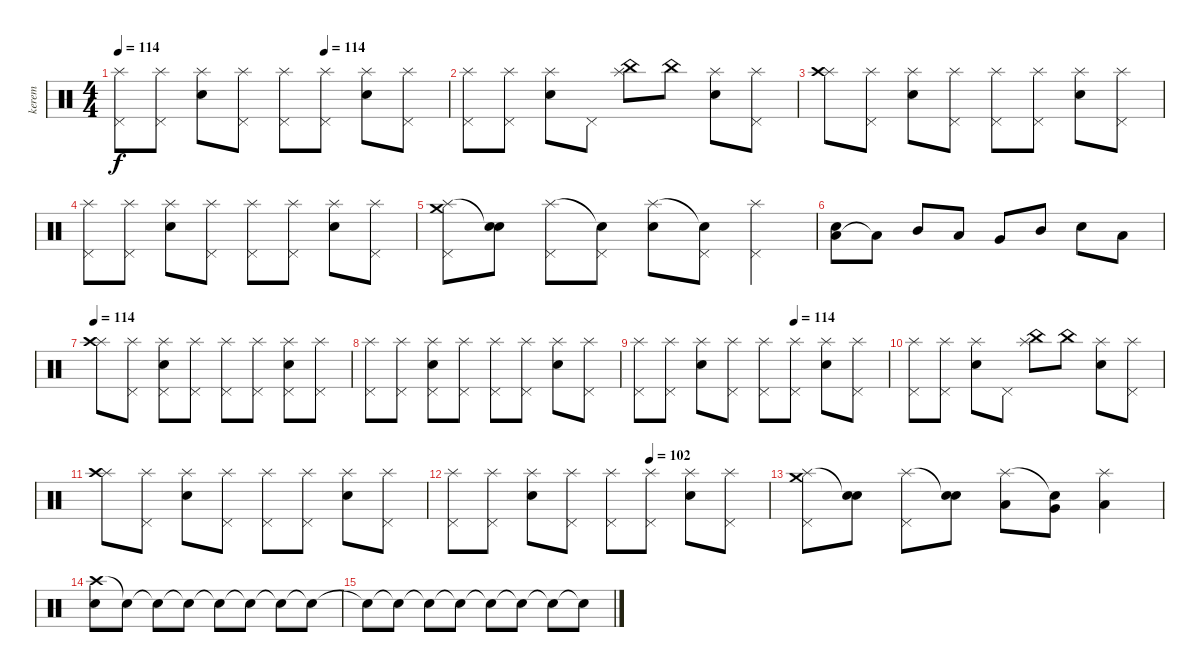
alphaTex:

\track ("kerem" "kerem") {instrument percussion}
\staff {score}
\articulation defaults
\ts (4 4)
\tempo 114
\tempo (114 0.625)
\clef neutral
\ks c
("Splash (hit)" "Pedal Hi-Hat (hit)").8{dy f} ("Splash (hit)" "Pedal Hi-Hat (hit)").8 ("Splash (hit)" "Snare (hit) 2").8 ("Splash (hit)" "Pedal Hi-Hat (hit)").8 ("Splash (hit)" "Pedal Hi-Hat (hit)").8 ("Splash (hit)" "Pedal Hi-Hat (hit)").8 ("Splash (hit)" "Snare (hit) 2").8 ("Splash (hit)" "Pedal Hi-Hat (hit)").8 |
("Splash (hit)" "Pedal Hi-Hat (hit)").8 ("Splash (hit)" "Pedal Hi-Hat (hit)").8 ("Splash (hit)" "Snare (hit) 2").8 "Pedal Hi-Hat (hit)".8 ("Splash (hit)" "China (hit)").8 "China (hit)".8 ("Splash (hit)" "Snare (hit) 2").8 ("Splash (hit)" "Pedal Hi-Hat (hit)").8 |
("Splash (hit)" "Crash high (hit)").8 ("Splash (hit)" "Pedal Hi-Hat (hit)").8 ("Splash (hit)" "Snare (hit) 2").8 ("Splash (hit)" "Pedal Hi-Hat (hit)").8 ("Splash (hit)" "Pedal Hi-Hat (hit)").8 ("Splash (hit)" "Pedal Hi-Hat (hit)").8 ("Splash (hit)" "Snare (hit) 2").8 ("Splash (hit)" "Pedal Hi-Hat (hit)").8 |
("Splash (hit)" "Pedal Hi-Hat (hit)").8 ("Splash (hit)" "Pedal Hi-Hat (hit)").8 ("Splash (hit)" "Snare (hit) 2").8 ("Splash (hit)" "Pedal Hi-Hat (hit)").8 ("Splash (hit)" "Pedal Hi-Hat (hit)").8 ("Splash (hit)" "Pedal Hi-Hat (hit)").8 ("Splash (hit)" "Snare (hit) 2").8 ("Splash (hit)" "Pedal Hi-Hat (hit)").8 |
("Splash (hit)" "Crash medium (hit)" "Pedal Hi-Hat (hit)").8 ("Snare (hit)"{t} "Snare (hit) 2").8 ("Splash (hit)" "Pedal Hi-Hat (hit)").8 ("Snare (hit)"{t} "Pedal Hi-Hat (hit)").8 ("Splash (hit)" "Snare (hit) 2").8 ("Snare (hit)"{t} "Pedal Hi-Hat (hit)").8 ("Splash (hit)" "Pedal Hi-Hat (hit)").4 |
("Low Tom (hit)" "Electric Snare (hit)").8 "Low Floor Tom (hit)"{t}.8 "Mid Tom (hit)".8 "Low Tom (hit)".8 "Very Low Tom (hit)".8 "Mid Tom (hit)".8 "Snare (hit) 2".8 "Low Floor Tom (hit)".8 |
\tempo 114
("Splash (hit)" "Crash high (hit)").8 ("Splash (hit)" "Pedal Hi-Hat (hit)").8 ("Splash (hit)" "Snare (hit) 2" "Pedal Hi-Hat (hit)").8 ("Splash (hit)" "Pedal Hi-Hat (hit)").8 ("Splash (hit)" "Pedal Hi-Hat (hit)").8 ("Splash (hit)" "Pedal Hi-Hat (hit)").8 ("Splash (hit)" "Snare (hit) 2" "Pedal Hi-Hat (hit)").8 ("Splash (hit)" "Pedal Hi-Hat (hit)").8 |
("Splash (hit)" "Pedal Hi-Hat (hit)").8 ("Splash (hit)" "Pedal Hi-Hat (hit)").8 ("Splash (hit)" "Snare (hit) 2" "Pedal Hi-Hat (hit)").8 ("Splash (hit)" "Pedal Hi-Hat (hit)").8 ("Splash (hit)" "Pedal Hi-Hat (hit)").8 ("Splash (hit)" "Pedal Hi-Hat (hit)").8 ("Splash (hit)" "Snare (hit) 2").8 ("Splash (hit)" "Pedal Hi-Hat (hit)").8 |
\tempo (114 0.625)
("Splash (hit)" "Pedal Hi-Hat (hit)").8 ("Splash (hit)" "Pedal Hi-Hat (hit)").8 ("Splash (hit)" "Snare (hit) 2").8 ("Splash (hit)" "Pedal Hi-Hat (hit)").8 ("Splash (hit)" "Pedal Hi-Hat (hit)").8 ("Splash (hit)" "Pedal Hi-Hat (hit)").8 ("Splash (hit)" "Snare (hit) 2").8 ("Splash (hit)" "Pedal Hi-Hat (hit)").8 |
("Splash (hit)" "Pedal Hi-Hat (hit)").8 ("Splash (hit)" "Pedal Hi-Hat (hit)").8 ("Splash (hit)" "Snare (hit) 2").8 "Pedal Hi-Hat (hit)".8 ("Splash (hit)" "China (hit)").8 "China (hit)".8 ("Splash (hit)" "Snare (hit) 2").8 ("Splash (hit)" "Pedal Hi-Hat (hit)").8 |
("Splash (hit)" "Crash high (hit)").8 ("Splash (hit)" "Pedal Hi-Hat (hit)").8 ("Splash (hit)" "Snare (hit) 2").8 ("Splash (hit)" "Pedal Hi-Hat (hit)").8 ("Splash (hit)" "Pedal Hi-Hat (hit)").8 ("Splash (hit)" "Pedal Hi-Hat (hit)").8 ("Splash (hit)" "Snare (hit) 2").8 ("Splash (hit)" "Pedal Hi-Hat (hit)").8 |
\tempo (102 0.625)
("Splash (hit)" "Pedal Hi-Hat (hit)").8 ("Splash (hit)" "Pedal Hi-Hat (hit)").8 ("Splash (hit)" "Snare (hit) 2").8 ("Splash (hit)" "Pedal Hi-Hat (hit)").8 ("Splash (hit)" "Pedal Hi-Hat (hit)").8 ("Splash (hit)" "Pedal Hi-Hat (hit)").8 ("Splash (hit)" "Snare (hit) 2").8 ("Splash (hit)" "Pedal Hi-Hat (hit)").8 |
("Splash (hit)" "Crash medium (hit)" "Pedal Hi-Hat (hit)").8 ("Snare (hit)"{t} "Snare (hit) 2").8 ("Splash (hit)" "Pedal Hi-Hat (hit)").8 ("Snare (hit)"{t} "Snare (hit) 2").8 ("Splash (hit)" "Low Floor Tom (hit)").8 ("Snare (hit)"{t} "Very Low Tom (hit)").8 ("Splash (hit)" "Low Tom (hit)").4 |
("Crash high (hit)" "Snare (hit) 2").8 "Snare (hit)"{t}.8 "Snare (hit)"{t}.8 "Snare (hit)"{t}.8 "Snare (hit)"{t}.8 "Snare (hit)"{t}.8 "Snare (hit)"{t}.8 "Snare (hit)"{t}.8 |
"Snare (hit)"{t}.8 "Snare (hit)"{t}.8 "Snare (hit)"{t}.8 "Snare (hit)"{t}.8 "Snare (hit)"{t}.8 "Snare (hit)"{t}.8 "Snare (hit)"{t}.8 "Snare (hit)"{t}.8
